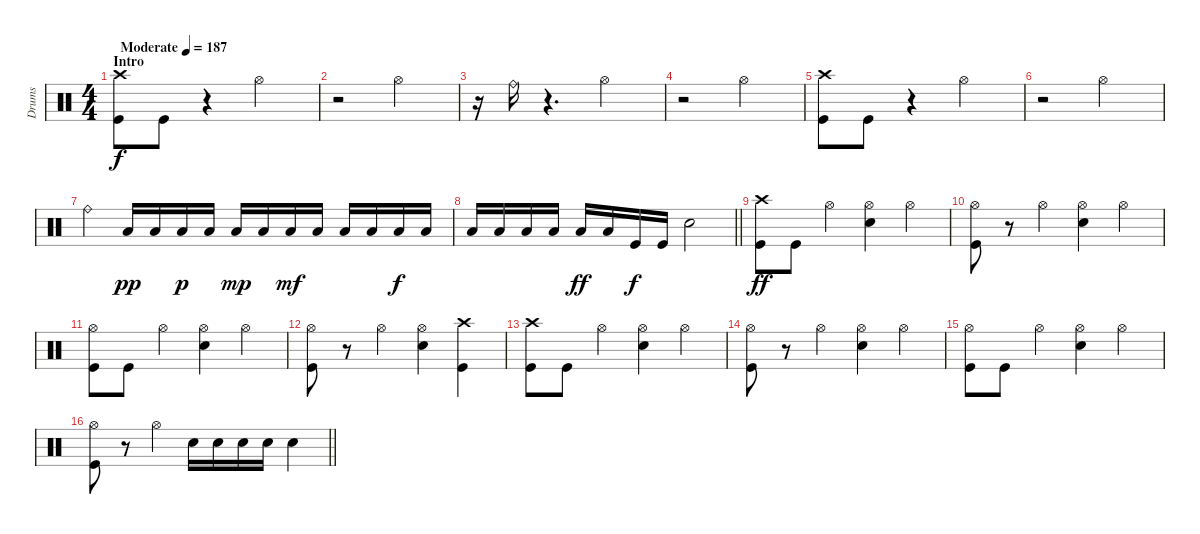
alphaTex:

\track ("Drums" "Drums") {instrument percussion}
\staff {score}
\articulation defaults
\ts (4 4)
\section ("" "Intro")
\tempo (187 "Moderate")
\clef neutral
\ks c
("Crash high (hit)" "Kick (hit)").8{dy f} "Kick (hit)".8 r.4 "Hi-Hat (open)".2 |
r.2 "Hi-Hat (open)".2 |
r.16 "Ride (bell)".16 r.4{d} "Hi-Hat (open)".2 |
r.2 "Hi-Hat (open)".2 |
("Crash high (hit)" "Kick (hit)").8 "Kick (hit)".8 r.4 "Hi-Hat (open)".2 |
r.2 "Hi-Hat (open)".2 |
"Ride (bell)".4 "Low Floor Tom (hit)".16{dy pp} "Low Floor Tom (hit)".16 "Low Floor Tom (hit)".16{dy p} "Low Floor Tom (hit)".16 "Low Floor Tom (hit)".16{dy mp} "Low Floor Tom (hit)".16 "Low Floor Tom (hit)".16{dy mf} "Low Floor Tom (hit)".16 "Low Floor Tom (hit)".16 "Low Floor Tom (hit)".16 "Low Floor Tom (hit)".16{dy f} "Low Floor Tom (hit)".16 |
\barLineRight lightlight "Low Floor Tom (hit)".16 "Low Floor Tom (hit)".16 "Low Floor Tom (hit)".16 "Low Floor Tom (hit)".16 "Low Floor Tom (hit)".16{dy ff} "Low Floor Tom (hit)".16 "Kick (hit)".16{dy f} "Kick (hit)".16 "Electric Snare (hit)".2
|
\section ("" "")
("Crash high (hit)" "Kick (hit)").8{dy ff} "Kick (hit)".8 "Hi-Hat (open)".4 ("Hi-Hat (open)" "Electric Snare (hit)").4 "Hi-Hat (open)".4 |
("Hi-Hat (open)" "Kick (hit)").8 r.8 "Hi-Hat (open)".4 ("Hi-Hat (open)" "Electric Snare (hit)").4 "Hi-Hat (open)".4 |
("Hi-Hat (open)" "Kick (hit)").8 "Kick (hit)".8 "Hi-Hat (open)".4 ("Hi-Hat (open)" "Electric Snare (hit)").4 "Hi-Hat (open)".4 |
("Hi-Hat (open)" "Kick (hit)").8 r.8 "Hi-Hat (open)".4 ("Hi-Hat (open)" "Electric Snare (hit)").4 ("Crash high (hit)" "Kick (hit)").4 |
("Crash high (hit)" "Kick (hit)").8 "Kick (hit)".8 "Hi-Hat (open)".4 ("Hi-Hat (open)" "Electric Snare (hit)").4 "Hi-Hat (open)".4 |
("Hi-Hat (open)" "Kick (hit)").8 r.8 "Hi-Hat (open)".4 ("Hi-Hat (open)" "Electric Snare (hit)").4 "Hi-Hat (open)".4 |
("Hi-Hat (open)" "Kick (hit)").8 "Kick (hit)".8 "Hi-Hat (open)".4 ("Hi-Hat (open)" "Electric Snare (hit)").4 "Hi-Hat (open)".4 |
\barLineRight lightlight
("Hi-Hat (open)" "Kick (hit)").8 r.8 "Hi-Hat (open)".4 "Electric Snare (hit)".16 "Electric Snare (hit)".16 "Electric Snare (hit)".16 "Electric Snare (hit)".16 "Electric Snare (hit)".4
